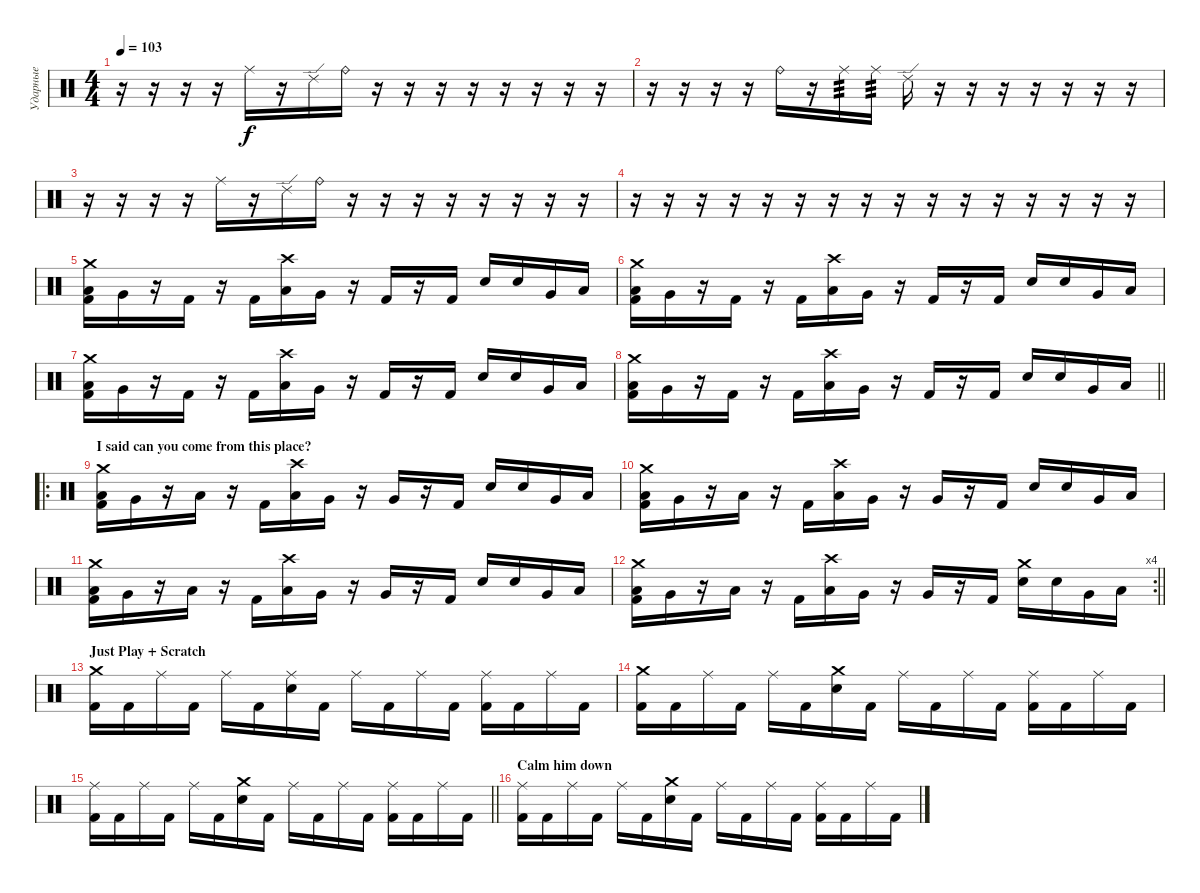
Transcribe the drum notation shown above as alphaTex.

\track ("Ударные" "Ударные") {instrument percussion}
\staff {score}
\articulation defaults
\ts (4 4)
\tempo 103
\clef neutral
\ks c
r.16{dy f} r.16 r.16 r.16 "Ride (middle)".16 r.16 "Ride (edge) 2".16 "Ride (bell)".16 r.16 r.16 r.16 r.16 r.16 r.16 r.16 r.16 |
r.16 r.16 r.16 r.16 "Ride (bell)".16 r.16 "Ride (middle)".16{tp 3} "Ride (middle)".16{tp 3} "Ride (edge) 2".16 r.16 r.16 r.16 r.16 r.16 r.16 r.16 |
r.16 r.16 r.16 r.16 "Ride (middle)".16 r.16 "Ride (edge) 2".16 "Ride (bell)".16 r.16 r.16 r.16 r.16 r.16 r.16 r.16 r.16 |
r.16 r.16 r.16 r.16 r.16 r.16 r.16 r.16 r.16 r.16 r.16 r.16 r.16 r.16 r.16 r.16 |
("Crash medium (hit)" "Low Tom (hit)" "Kick (hit) 2").16 "Very Low Tom (hit)".16 r.16 "Kick (hit) 2".16 r.16 "Kick (hit) 2".16 ("Crash high (hit)" "Low Tom (hit)").16 "Very Low Tom (hit)".16 r.16 "Kick (hit) 2".16 r.16 "Kick (hit) 2".16 "Snare (hit) 2".16 "Snare (hit) 2".16 "Very Low Tom (hit)".16 "Low Floor Tom (hit)".16 |
("Crash medium (hit)" "Low Tom (hit)" "Kick (hit) 2").16 "Very Low Tom (hit)".16 r.16 "Kick (hit) 2".16 r.16 "Kick (hit) 2".16 ("Crash high (hit)" "Low Tom (hit)").16 "Very Low Tom (hit)".16 r.16 "Kick (hit) 2".16 r.16 "Kick (hit) 2".16 "Snare (hit) 2".16 "Snare (hit) 2".16 "Very Low Tom (hit)".16 "Low Floor Tom (hit)".16 |
("Crash medium (hit)" "Low Tom (hit)" "Kick (hit) 2").16 "Very Low Tom (hit)".16 r.16 "Kick (hit) 2".16 r.16 "Kick (hit) 2".16 ("Crash high (hit)" "Low Tom (hit)").16 "Very Low Tom (hit)".16 r.16 "Kick (hit) 2".16 r.16 "Kick (hit) 2".16 "Snare (hit) 2".16 "Snare (hit) 2".16 "Very Low Tom (hit)".16 "Low Floor Tom (hit)".16 |
\barLineRight lightlight
("Crash medium (hit)" "Low Tom (hit)" "Kick (hit) 2").16 "Very Low Tom (hit)".16 r.16 "Kick (hit) 2".16 r.16 "Kick (hit) 2".16 ("Crash high (hit)" "Low Tom (hit)").16 "Very Low Tom (hit)".16 r.16 "Kick (hit) 2".16 r.16 "Kick (hit) 2".16 "Snare (hit) 2".16 "Snare (hit) 2".16 "Very Low Tom (hit)".16 "Low Floor Tom (hit)".16 |
\ro
\section ("" "I said can you come from this place? ")
("Crash medium (hit)" "Low Tom (hit)" "Kick (hit) 2").16 "Very Low Tom (hit)".16 r.16 "Low Floor Tom (hit)".16 r.16 "Kick (hit) 2".16 ("Crash high (hit)" "Low Tom (hit)").16 "Very Low Tom (hit)".16 r.16 "Very Low Tom (hit)".16 r.16 "Kick (hit) 2".16 "Snare (hit) 2".16 "Snare (hit) 2".16 "Very Low Tom (hit)".16 "Low Floor Tom (hit)".16 |
("Crash medium (hit)" "Low Tom (hit)" "Kick (hit) 2").16 "Very Low Tom (hit)".16 r.16 "Low Floor Tom (hit)".16 r.16 "Kick (hit) 2".16 ("Crash high (hit)" "Low Tom (hit)").16 "Very Low Tom (hit)".16 r.16 "Very Low Tom (hit)".16 r.16 "Kick (hit) 2".16 "Snare (hit) 2".16 "Snare (hit) 2".16 "Very Low Tom (hit)".16 "Low Floor Tom (hit)".16 |
("Crash medium (hit)" "Low Tom (hit)" "Kick (hit) 2").16 "Very Low Tom (hit)".16 r.16 "Low Floor Tom (hit)".16 r.16 "Kick (hit) 2".16 ("Crash high (hit)" "Low Tom (hit)").16 "Very Low Tom (hit)".16 r.16 "Very Low Tom (hit)".16 r.16 "Kick (hit) 2".16 "Snare (hit) 2".16 "Snare (hit) 2".16 "Very Low Tom (hit)".16 "Low Floor Tom (hit)".16 |
\rc 4
\barLineRight lightlight
("Crash medium (hit)" "Low Tom (hit)" "Kick (hit) 2").16 "Very Low Tom (hit)".16 r.16 "Low Floor Tom (hit)".16 r.16 "Kick (hit) 2".16 ("Crash high (hit)" "Low Tom (hit)").16 "Very Low Tom (hit)".16 r.16 "Very Low Tom (hit)".16 r.16 "Kick (hit) 2".16 ("Crash medium (hit)" "Snare (hit) 2").16 "Snare (hit) 2".16 "Very Low Tom (hit)".16 "Low Floor Tom (hit)".16 |
\section ("" "Just Play + Scratch")
("Crash medium (hit)" "Kick (hit) 2").16 "Kick (hit) 2".16 "Ride (middle)".16 "Kick (hit) 2".16 "Ride (middle)".16 "Kick (hit) 2".16 ("Ride (middle)" "Electric Snare (hit)").16 "Kick (hit) 2".16 "Ride (middle)".16 "Kick (hit) 2".16 "Ride (middle)".16 "Kick (hit) 2".16 ("Ride (middle)" "Kick (hit) 2").16 "Kick (hit) 2".16 "Ride (middle)".16 "Kick (hit) 2".16 |
("Crash medium (hit)" "Kick (hit) 2").16 "Kick (hit) 2".16 "Ride (middle)".16 "Kick (hit) 2".16 "Ride (middle)".16 "Kick (hit) 2".16 ("Crash medium (hit)" "Electric Snare (hit)").16 "Kick (hit) 2".16 "Ride (middle)".16 "Kick (hit) 2".16 "Ride (middle)".16 "Kick (hit) 2".16 ("Ride (middle)" "Kick (hit) 2").16 "Kick (hit) 2".16 "Ride (middle)".16 "Kick (hit) 2".16 |
\barLineRight lightlight
("Ride (middle)" "Kick (hit) 2").16 "Kick (hit) 2".16 "Ride (middle)".16 "Kick (hit) 2".16 "Ride (middle)".16 "Kick (hit) 2".16 ("Crash medium (hit)" "Electric Snare (hit)").16 "Kick (hit) 2".16 "Ride (middle)".16 "Kick (hit) 2".16 "Ride (middle)".16 "Kick (hit) 2".16 ("Ride (middle)" "Kick (hit) 2").16 "Kick (hit) 2".16 "Ride (middle)".16 "Kick (hit) 2".16 |
\section ("" "Calm him down")
("Ride (middle)" "Kick (hit) 2").16 "Kick (hit) 2".16 "Ride (middle)".16 "Kick (hit) 2".16 "Ride (middle)".16 "Kick (hit) 2".16 ("Crash medium (hit)" "Electric Snare (hit)").16 "Kick (hit) 2".16 "Ride (middle)".16 "Kick (hit) 2".16 "Ride (middle)".16 "Kick (hit) 2".16 ("Ride (middle)" "Kick (hit) 2").16 "Kick (hit) 2".16 "Ride (middle)".16 "Kick (hit) 2".16
